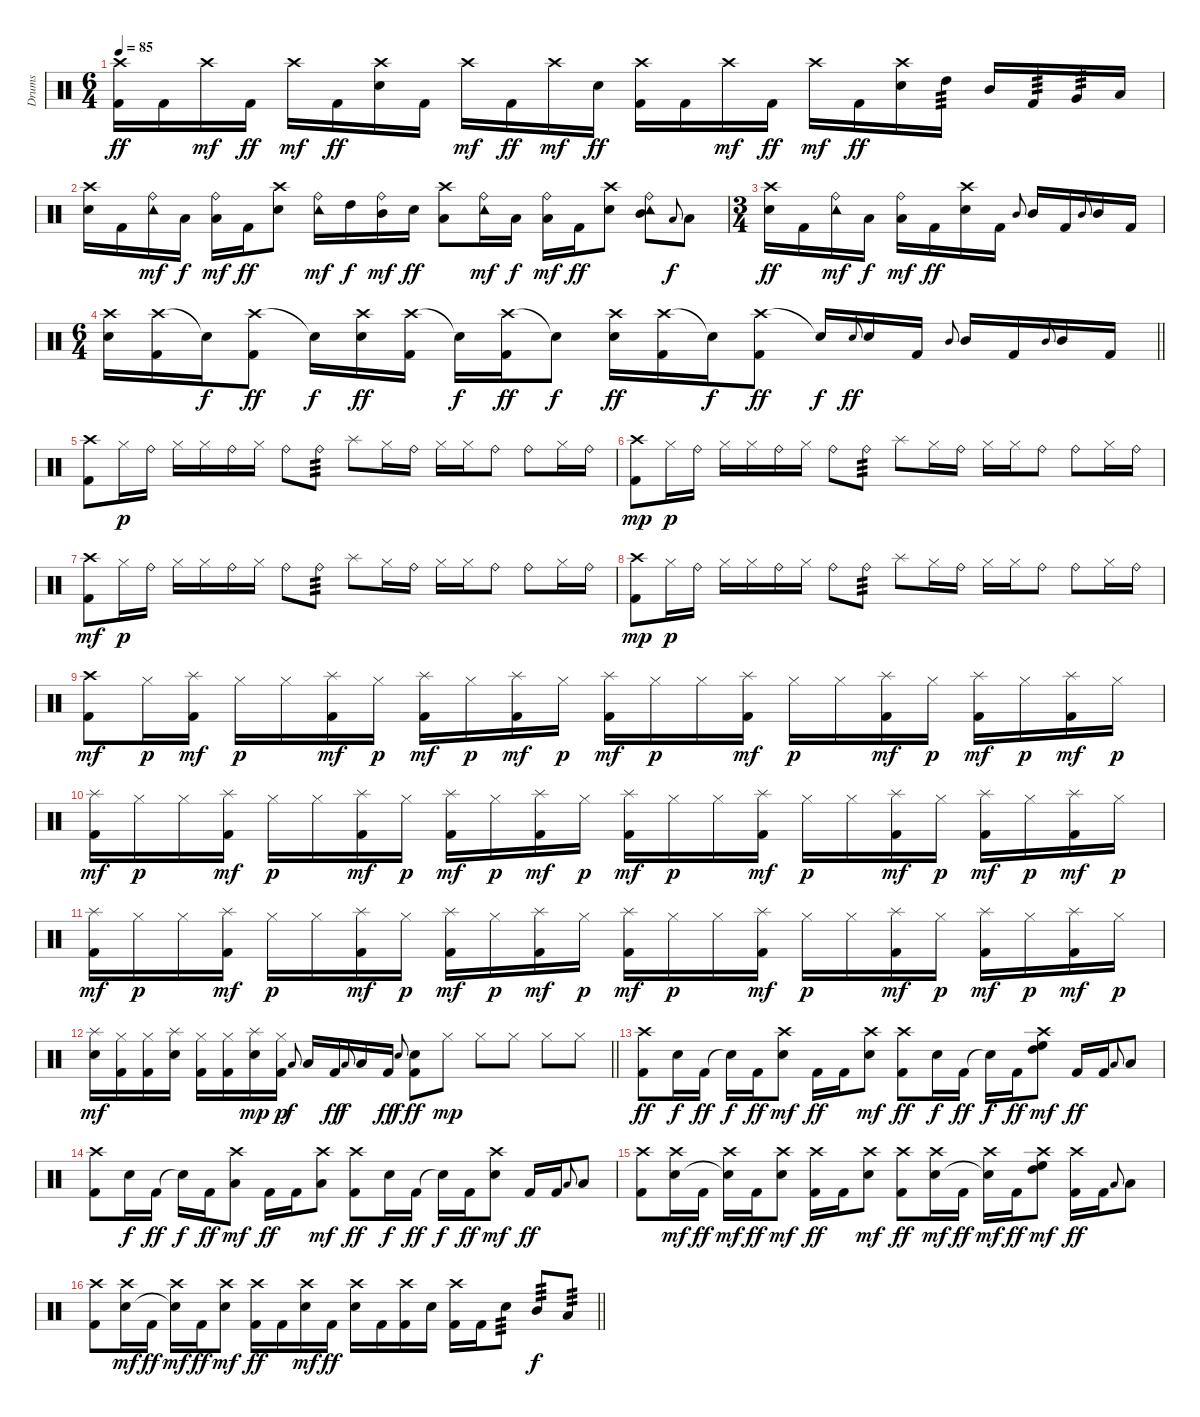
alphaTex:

\track ("Drums" "Drums") {instrument percussion}
\staff {score}
\articulation defaults
\ts (6 4)
\tempo 85
\clef neutral
\ks c
("Crash high (hit)" "Kick (hit) 2").16{dy ff} "Kick (hit) 2".16 "Crash high (hit)".16{dy mf} "Kick (hit) 2".16{dy ff} "Crash high (hit)".16{dy mf} "Kick (hit) 2".16{dy ff} ("Crash high (hit)" "Snare (hit) 2").16 "Kick (hit) 2".16 "Crash high (hit)".16{dy mf} "Kick (hit) 2".16{dy ff} "Crash high (hit)".16{dy mf} "Snare (hit) 2".16{dy ff} ("Crash high (hit)" "Kick (hit) 2").16 "Kick (hit) 2".16 "Crash high (hit)".16{dy mf} "Kick (hit) 2".16{dy ff} "Crash high (hit)".16{dy mf} "Kick (hit) 2".16{dy ff} ("Crash high (hit)" "Snare (hit) 2").16 "High Tom (hit)".16{tp 3} "Mid Tom (hit)".16 "Kick (hit) 2".16{tp 3} "Very Low Tom (hit)".16{tp 3} "Low Floor Tom (hit)".16 |
("Crash high (hit)" "Snare (hit) 2").16 "Kick (hit) 2".16 ("Tambourine (hit)" "Ride (bell)").16{dy mf} "Low Floor Tom (hit)".16{dy f} ("Ride (bell)" "Low Floor Tom (hit)").16{dy mf} "Kick (hit) 2".16{dy ff} ("Crash high (hit)" "Snare (hit) 2").8 ("Tambourine (hit)" "Ride (bell)").16{dy mf} "High Tom (hit)".16{dy f} ("Ride (bell)" "Mid Tom (hit)").16{dy mf} "Snare (hit) 2".16{dy ff} ("Crash high (hit)" "Low Tom (hit)").8 ("Tambourine (hit)" "Ride (bell)").16{dy mf} "Low Floor Tom (hit)".16{dy f} ("Ride (bell)" "Low Floor Tom (hit)").16{dy mf} "Kick (hit) 2".16{dy ff} ("Crash high (hit)" "Snare (hit) 2").8 ("Tambourine (hit)" "Ride (bell)" "Mid Tom (hit)").8 "Low Tom (hit)".8{gr onbeat dy f} "Low Tom (hit)".8 |
\ts (3 4)
("Crash high (hit)" "Snare (hit) 2").16{dy ff} "Kick (hit) 2".16 ("Tambourine (hit)" "Ride (bell)").16{dy mf} "Low Floor Tom (hit)".16{dy f} ("Ride (bell)" "Low Floor Tom (hit)").16{dy mf} "Kick (hit) 2".16{dy ff} ("Crash high (hit)" "Snare (hit) 2").16 "Kick (hit) 2".16 "Mid Tom (hit)".8{gr onbeat} "Mid Tom (hit)".16 "Kick (hit) 2".16 "Mid Tom (hit)".8{gr onbeat} "Mid Tom (hit)".16 "Kick (hit) 2".16 |
\ts (6 4)
\barLineRight lightlight
("Crash high (hit)" "Snare (hit) 2").16 ("Crash high (hit)" "Kick (hit) 2").16 "Snare (hit)"{t}.16{dy f} ("Crash high (hit)" "Kick (hit) 2").8{dy ff} "Snare (hit)"{t}.16{dy f} ("Crash high (hit)" "Snare (hit) 2").16{dy ff} ("Crash high (hit)" "Kick (hit) 2").16 "Snare (hit)"{t}.16{dy f} ("Crash high (hit)" "Kick (hit) 2").16{dy ff} "Snare (hit)"{t}.8{dy f} ("Crash high (hit)" "Snare (hit) 2").16{dy ff} ("Crash high (hit)" "Kick (hit) 2").16 "Snare (hit)"{t}.16{dy f} ("Crash high (hit)" "Kick (hit) 2").8{dy ff} "Snare (hit)"{t}.16{dy f} "Snare (hit) 2".8{gr onbeat dy ff} "Snare (hit) 2".16 "Kick (hit) 2".16 "Mid Tom (hit)".8{gr onbeat} "Mid Tom (hit)".16 "Kick (hit) 2".16 "Mid Tom (hit)".8{gr onbeat} "Mid Tom (hit)".16 "Kick (hit) 2".16 |
\section ("" "")
("Crash high (hit)" "Kick (hit) 2").8 "Hi-Hat (closed)".16{dy p} "Ride (bell)".16 "Hi-Hat (closed)".16 "Hi-Hat (closed)".16 "Ride (bell)".16 "Hi-Hat (closed)".16 "Ride (bell)".8 "Ride (bell)".8{tp 3} "Splash (hit)".8 "Hi-Hat (closed)".16 "Ride (bell)".16 "Hi-Hat (closed)".16 "Hi-Hat (closed)".16 "Ride (bell)".8 "Ride (bell)".8 "Hi-Hat (closed)".16 "Ride (bell)".16 |
("Crash high (hit)" "Kick (hit) 2").8{dy mp} "Hi-Hat (closed)".16{dy p} "Ride (bell)".16 "Hi-Hat (closed)".16 "Hi-Hat (closed)".16 "Ride (bell)".16 "Hi-Hat (closed)".16 "Ride (bell)".8 "Ride (bell)".8{tp 3} "Splash (hit)".8 "Hi-Hat (closed)".16 "Ride (bell)".16 "Hi-Hat (closed)".16 "Hi-Hat (closed)".16 "Ride (bell)".8 "Ride (bell)".8 "Hi-Hat (closed)".16 "Ride (bell)".16 |
("Crash high (hit)" "Kick (hit) 2").8{dy mf} "Hi-Hat (closed)".16{dy p} "Ride (bell)".16 "Hi-Hat (closed)".16 "Hi-Hat (closed)".16 "Ride (bell)".16 "Hi-Hat (closed)".16 "Ride (bell)".8 "Ride (bell)".8{tp 3} "Splash (hit)".8 "Hi-Hat (closed)".16 "Ride (bell)".16 "Hi-Hat (closed)".16 "Hi-Hat (closed)".16 "Ride (bell)".8 "Ride (bell)".8 "Hi-Hat (closed)".16 "Ride (bell)".16 |
("Crash high (hit)" "Kick (hit) 2").8{dy mp} "Hi-Hat (closed)".16{dy p} "Ride (bell)".16 "Hi-Hat (closed)".16 "Hi-Hat (closed)".16 "Ride (bell)".16 "Hi-Hat (closed)".16 "Ride (bell)".8 "Ride (bell)".8{tp 3} "Splash (hit)".8 "Hi-Hat (closed)".16 "Ride (bell)".16 "Hi-Hat (closed)".16 "Hi-Hat (closed)".16 "Ride (bell)".8 "Ride (bell)".8 "Hi-Hat (closed)".16 "Ride (bell)".16 |
("Crash high (hit)" "Kick (hit) 2").8{dy mf} "Hi-Hat (closed)".16{dy p} ("Splash (hit)" "Kick (hit) 2").16{dy mf} "Hi-Hat (closed)".16{dy p} "Hi-Hat (closed)".16 ("Splash (hit)" "Kick (hit) 2").16{dy mf} "Hi-Hat (closed)".16{dy p} ("Splash (hit)" "Kick (hit) 2").16{dy mf} "Hi-Hat (closed)".16{dy p} ("Splash (hit)" "Kick (hit) 2").16{dy mf} "Hi-Hat (closed)".16{dy p} ("Splash (hit)" "Kick (hit) 2").16{dy mf} "Hi-Hat (closed)".16{dy p} "Hi-Hat (closed)".16 ("Splash (hit)" "Kick (hit) 2").16{dy mf} "Hi-Hat (closed)".16{dy p} "Hi-Hat (closed)".16 ("Splash (hit)" "Kick (hit) 2").16{dy mf} "Hi-Hat (closed)".16{dy p} ("Splash (hit)" "Kick (hit) 2").16{dy mf} "Hi-Hat (closed)".16{dy p} ("Splash (hit)" "Kick (hit) 2").16{dy mf} "Hi-Hat (closed)".16{dy p} |
("Splash (hit)" "Kick (hit) 2").16{dy mf} "Hi-Hat (closed)".16{dy p} "Hi-Hat (closed)".16 ("Splash (hit)" "Kick (hit) 2").16{dy mf} "Hi-Hat (closed)".16{dy p} "Hi-Hat (closed)".16 ("Splash (hit)" "Kick (hit) 2").16{dy mf} "Hi-Hat (closed)".16{dy p} ("Splash (hit)" "Kick (hit) 2").16{dy mf} "Hi-Hat (closed)".16{dy p} ("Splash (hit)" "Kick (hit) 2").16{dy mf} "Hi-Hat (closed)".16{dy p} ("Splash (hit)" "Kick (hit) 2").16{dy mf} "Hi-Hat (closed)".16{dy p} "Hi-Hat (closed)".16 ("Splash (hit)" "Kick (hit) 2").16{dy mf} "Hi-Hat (closed)".16{dy p} "Hi-Hat (closed)".16 ("Splash (hit)" "Kick (hit) 2").16{dy mf} "Hi-Hat (closed)".16{dy p} ("Splash (hit)" "Kick (hit) 2").16{dy mf} "Hi-Hat (closed)".16{dy p} ("Splash (hit)" "Kick (hit) 2").16{dy mf} "Hi-Hat (closed)".16{dy p} |
("Splash (hit)" "Kick (hit) 2").16{dy mf} "Hi-Hat (closed)".16{dy p} "Hi-Hat (closed)".16 ("Splash (hit)" "Kick (hit) 2").16{dy mf} "Hi-Hat (closed)".16{dy p} "Hi-Hat (closed)".16 ("Splash (hit)" "Kick (hit) 2").16{dy mf} "Hi-Hat (closed)".16{dy p} ("Splash (hit)" "Kick (hit) 2").16{dy mf} "Hi-Hat (closed)".16{dy p} ("Splash (hit)" "Kick (hit) 2").16{dy mf} "Hi-Hat (closed)".16{dy p} ("Splash (hit)" "Kick (hit) 2").16{dy mf} "Hi-Hat (closed)".16{dy p} "Hi-Hat (closed)".16 ("Splash (hit)" "Kick (hit) 2").16{dy mf} "Hi-Hat (closed)".16{dy p} "Hi-Hat (closed)".16 ("Splash (hit)" "Kick (hit) 2").16{dy mf} "Hi-Hat (closed)".16{dy p} ("Splash (hit)" "Kick (hit) 2").16{dy mf} "Hi-Hat (closed)".16{dy p} ("Splash (hit)" "Kick (hit) 2").16{dy mf} "Hi-Hat (closed)".16{dy p} |
\barLineRight lightlight
("Splash (hit)" "Snare (hit) 2").16{dy mf} ("Hi-Hat (closed)" "Kick (hit) 2").16 ("Hi-Hat (closed)" "Kick (hit) 2").16 ("Splash (hit)" "Snare (hit) 2").16 ("Hi-Hat (closed)" "Kick (hit) 2").16 ("Hi-Hat (closed)" "Kick (hit) 2").16 ("Splash (hit)" "Snare (hit) 2").16{dy mp} ("Hi-Hat (closed)" "Kick (hit) 2").16{dy p} "Low Tom (hit)".8{gr onbeat dy f} "Low Tom (hit)".16 "Kick (hit) 2".16{dy ff} "Low Tom (hit)".8{gr onbeat dy f} "Low Tom (hit)".16 "Kick (hit) 2".16{dy ff} "Snare (hit) 2".8{gr onbeat dy f} ("Snare (hit) 2" "Kick (hit) 2").8{dy ff} "Hi-Hat (closed)".8{dy mp} "Hi-Hat (closed)".8 "Hi-Hat (closed)".8 "Hi-Hat (closed)".8 "Hi-Hat (closed)".8 |
\section ("" "")
("Crash high (hit)" "Kick (hit) 2").8{dy ff} "Snare (hit) 2".16{dy f} "Kick (hit) 2".16{dy ff} "Snare (hit)"{t}.16{dy f} "Kick (hit) 2".16{dy ff} ("Crash high (hit)" "Snare (hit) 2").8{dy mf} "Kick (hit) 2".16{dy ff} "Kick (hit) 2".16 ("Crash high (hit)" "Snare (hit) 2").8{dy mf} ("Crash high (hit)" "Kick (hit) 2").8{dy ff} "Snare (hit) 2".16{dy f} "Kick (hit) 2".16{dy ff} "Snare (hit)"{t}.16{dy f} "Kick (hit) 2".16{dy ff} ("Crash high (hit)" "High Floor Tom (hit)" "High Tom (hit)").8{dy mf} "Kick (hit) 2".16{dy ff} "Kick (hit) 2".16 "Low Tom (hit)".8{gr onbeat} "Low Tom (hit)".8 |
("Crash high (hit)" "Kick (hit) 2").8 "Snare (hit) 2".16{dy f} "Kick (hit) 2".16{dy ff} "Snare (hit)"{t}.16{dy f} "Kick (hit) 2".16{dy ff} ("Crash high (hit)" "Low Tom (hit)").8{dy mf} "Kick (hit) 2".16{dy ff} "Kick (hit) 2".16 ("Crash high (hit)" "Low Tom (hit)").8{dy mf} ("Crash high (hit)" "Kick (hit) 2").8{dy ff} "Snare (hit) 2".16{dy f} "Kick (hit) 2".16{dy ff} "Snare (hit)"{t}.16{dy f} "Kick (hit) 2".16{dy ff} ("Crash high (hit)" "Snare (hit) 2").8{dy mf} "Kick (hit) 2".16{dy ff} "Kick (hit) 2".16 "Low Tom (hit)".8{gr onbeat} "Low Tom (hit)".8 |
("Crash high (hit)" "Kick (hit) 2").8 ("Crash high (hit)" "Snare (hit) 2").16{dy mf} "Kick (hit) 2".16{dy ff} ("Crash high (hit)" "Snare (hit)"{t}).16{dy mf} "Kick (hit) 2".16{dy ff} ("Crash high (hit)" "Snare (hit) 2").8{dy mf} ("Crash high (hit)" "Kick (hit) 2").16{dy ff} "Kick (hit) 2".16 ("Crash high (hit)" "Snare (hit) 2").8{dy mf} ("Crash high (hit)" "Kick (hit) 2").8{dy ff} ("Crash high (hit)" "Snare (hit) 2").16{dy mf} "Kick (hit) 2".16{dy ff} ("Crash high (hit)" "Snare (hit)"{t}).16{dy mf} "Kick (hit) 2".16{dy ff} ("Crash high (hit)" "High Floor Tom (hit)" "High Tom (hit)").8{dy mf} ("Crash high (hit)" "Kick (hit) 2").16{dy ff} "Kick (hit) 2".16 "Low Tom (hit)".8{gr onbeat} "Low Tom (hit)".8 |
\barLineRight lightlight
("Crash high (hit)" "Kick (hit) 2").8 ("Crash high (hit)" "Snare (hit) 2").16{dy mf} "Kick (hit) 2".16{dy ff} ("Crash high (hit)" "Snare (hit)"{t}).16{dy mf} "Kick (hit) 2".16{dy ff} ("Crash high (hit)" "Snare (hit) 2").8{dy mf} ("Crash high (hit)" "Kick (hit) 2").16{dy ff} "Kick (hit) 2".16 ("Crash high (hit)" "Snare (hit) 2").16{dy mf} "Kick (hit) 2".16{dy ff} ("Crash high (hit)" "Snare (hit) 2").16 "Kick (hit) 2".16 ("Crash high (hit)" "Kick (hit) 2").16 "Snare (hit) 2".16 ("Crash high (hit)" "Kick (hit) 2").16 "Kick (hit) 2".16 "Snare (hit) 2".8{tp 3} "Mid Tom (hit)".8{tp 3 dy f} "Low Tom (hit)".8{tp 3}
